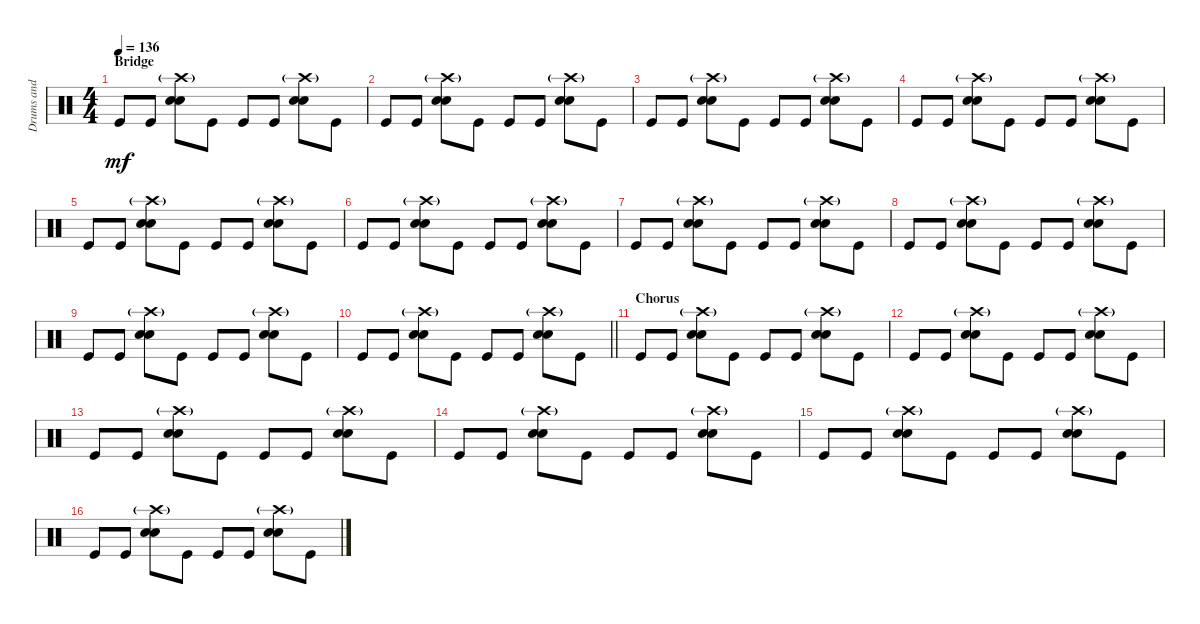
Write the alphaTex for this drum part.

\track ("Drums and Percussions" "Drums and ") {instrument percussion}
\staff {score}
\articulation defaults
\ts (4 4)
\section ("" "Bridge")
\tempo 136
\clef neutral
\ks c "Kick (hit)".8{dy mf} "Kick (hit)".8
("Crash high (hit)"{g} "Electric Snare (hit)" "Electric Snare (hit)").8 "Kick (hit)".8 "Kick (hit)".8 "Kick (hit)".8 ("Crash high (hit)"{g} "Electric Snare (hit)" "Electric Snare (hit)").8 "Kick (hit)".8 |
"Kick (hit)".8 "Kick (hit)".8 ("Crash high (hit)"{g} "Electric Snare (hit)" "Electric Snare (hit)").8 "Kick (hit)".8 "Kick (hit)".8 "Kick (hit)".8 ("Crash high (hit)"{g} "Electric Snare (hit)" "Electric Snare (hit)").8 "Kick (hit)".8 |
"Kick (hit)".8 "Kick (hit)".8 ("Crash high (hit)"{g} "Electric Snare (hit)" "Electric Snare (hit)").8 "Kick (hit)".8 "Kick (hit)".8 "Kick (hit)".8 ("Crash high (hit)"{g} "Electric Snare (hit)" "Electric Snare (hit)").8 "Kick (hit)".8 |
"Kick (hit)".8 "Kick (hit)".8 ("Crash high (hit)"{g} "Electric Snare (hit)" "Electric Snare (hit)").8 "Kick (hit)".8 "Kick (hit)".8 "Kick (hit)".8 ("Crash high (hit)"{g} "Electric Snare (hit)" "Electric Snare (hit)").8 "Kick (hit)".8 |
"Kick (hit)".8 "Kick (hit)".8 ("Crash high (hit)"{g} "Electric Snare (hit)" "Electric Snare (hit)").8 "Kick (hit)".8 "Kick (hit)".8 "Kick (hit)".8 ("Crash high (hit)"{g} "Electric Snare (hit)" "Electric Snare (hit)").8 "Kick (hit)".8 |
"Kick (hit)".8 "Kick (hit)".8 ("Crash high (hit)"{g} "Electric Snare (hit)" "Electric Snare (hit)").8 "Kick (hit)".8 "Kick (hit)".8 "Kick (hit)".8 ("Crash high (hit)"{g} "Electric Snare (hit)" "Electric Snare (hit)").8 "Kick (hit)".8 |
"Kick (hit)".8 "Kick (hit)".8 ("Crash high (hit)"{g} "Electric Snare (hit)" "Electric Snare (hit)").8 "Kick (hit)".8 "Kick (hit)".8 "Kick (hit)".8 ("Crash high (hit)"{g} "Electric Snare (hit)" "Electric Snare (hit)").8 "Kick (hit)".8 |
"Kick (hit)".8 "Kick (hit)".8 ("Crash high (hit)"{g} "Electric Snare (hit)" "Electric Snare (hit)").8 "Kick (hit)".8 "Kick (hit)".8 "Kick (hit)".8 ("Crash high (hit)"{g} "Electric Snare (hit)" "Electric Snare (hit)").8 "Kick (hit)".8 |
"Kick (hit)".8 "Kick (hit)".8 ("Crash high (hit)"{g} "Electric Snare (hit)" "Electric Snare (hit)").8 "Kick (hit)".8 "Kick (hit)".8 "Kick (hit)".8 ("Crash high (hit)"{g} "Electric Snare (hit)" "Electric Snare (hit)").8 "Kick (hit)".8 |
\barLineRight lightlight "Kick (hit)".8 "Kick (hit)".8
("Crash high (hit)"{g} "Electric Snare (hit)" "Electric Snare (hit)").8 "Kick (hit)".8 "Kick (hit)".8 "Kick (hit)".8 ("Crash high (hit)"{g} "Electric Snare (hit)" "Electric Snare (hit)").8 "Kick (hit)".8 |
\section ("" "Chorus")
"Kick (hit)".8 "Kick (hit)".8 ("Crash high (hit)"{g} "Electric Snare (hit)" "Electric Snare (hit)").8 "Kick (hit)".8 "Kick (hit)".8 "Kick (hit)".8 ("Crash high (hit)"{g} "Electric Snare (hit)" "Electric Snare (hit)").8 "Kick (hit)".8 |
"Kick (hit)".8 "Kick (hit)".8 ("Crash high (hit)"{g} "Electric Snare (hit)" "Electric Snare (hit)").8 "Kick (hit)".8 "Kick (hit)".8 "Kick (hit)".8 ("Crash high (hit)"{g} "Electric Snare (hit)" "Electric Snare (hit)").8 "Kick (hit)".8 |
"Kick (hit)".8 "Kick (hit)".8 ("Crash high (hit)"{g} "Electric Snare (hit)" "Electric Snare (hit)").8 "Kick (hit)".8 "Kick (hit)".8 "Kick (hit)".8 ("Crash high (hit)"{g} "Electric Snare (hit)" "Electric Snare (hit)").8 "Kick (hit)".8 |
"Kick (hit)".8 "Kick (hit)".8 ("Crash high (hit)"{g} "Electric Snare (hit)" "Electric Snare (hit)").8 "Kick (hit)".8 "Kick (hit)".8 "Kick (hit)".8 ("Crash high (hit)"{g} "Electric Snare (hit)" "Electric Snare (hit)").8 "Kick (hit)".8 |
"Kick (hit)".8 "Kick (hit)".8 ("Crash high (hit)"{g} "Electric Snare (hit)" "Electric Snare (hit)").8 "Kick (hit)".8 "Kick (hit)".8 "Kick (hit)".8 ("Crash high (hit)"{g} "Electric Snare (hit)" "Electric Snare (hit)").8 "Kick (hit)".8 |
"Kick (hit)".8 "Kick (hit)".8 ("Crash high (hit)"{g} "Electric Snare (hit)" "Electric Snare (hit)").8 "Kick (hit)".8 "Kick (hit)".8 "Kick (hit)".8 ("Crash high (hit)"{g} "Electric Snare (hit)" "Electric Snare (hit)").8 "Kick (hit)".8
